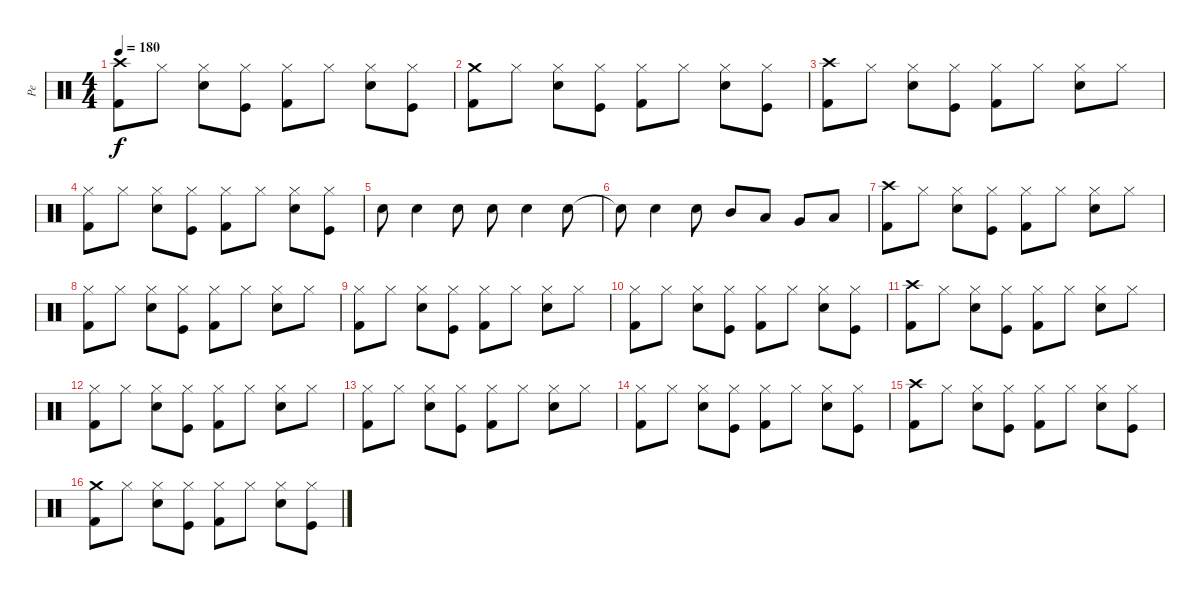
\track ("Pe" "Pe") {instrument percussion}
\staff {score}
\articulation defaults
\ts (4 4)
\tempo 180
\clef neutral
\ks c
("Kick (hit) 2" "Crash high (hit)").8{dy f} "Hi-Hat (closed)".8 ("Electric Snare (hit)" "Hi-Hat (closed)").8 ("Kick (hit)" "Hi-Hat (closed)").8 ("Kick (hit) 2" "Hi-Hat (closed)").8 "Hi-Hat (closed)".8 ("Electric Snare (hit)" "Hi-Hat (closed)").8 ("Kick (hit)" "Hi-Hat (closed)").8 |
("Kick (hit) 2" "Crash medium (hit)").8 "Hi-Hat (closed)".8 ("Electric Snare (hit)" "Hi-Hat (closed)").8 ("Kick (hit)" "Hi-Hat (closed)").8 ("Kick (hit) 2" "Hi-Hat (closed)").8 "Hi-Hat (closed)".8 ("Electric Snare (hit)" "Hi-Hat (closed)").8 ("Kick (hit)" "Hi-Hat (closed)").8 |
("Kick (hit) 2" "Crash high (hit)").8 "Hi-Hat (closed)".8 ("Electric Snare (hit)" "Hi-Hat (closed)").8 ("Kick (hit)" "Hi-Hat (closed)").8 ("Kick (hit) 2" "Hi-Hat (closed)").8 "Hi-Hat (closed)".8 ("Electric Snare (hit)" "Hi-Hat (closed)").8 "Hi-Hat (closed)".8 |
("Kick (hit) 2" "Hi-Hat (closed)").8 "Hi-Hat (closed)".8 ("Electric Snare (hit)" "Hi-Hat (closed)").8 ("Kick (hit)" "Hi-Hat (closed)").8 ("Kick (hit) 2" "Hi-Hat (closed)").8 "Hi-Hat (closed)".8 ("Electric Snare (hit)" "Hi-Hat (closed)").8 ("Kick (hit)" "Hi-Hat (closed)").8 |
"Electric Snare (hit)".8 "Electric Snare (hit)".4 "Electric Snare (hit)".8 "Electric Snare (hit)".8 "Electric Snare (hit)".4 "Electric Snare (hit)".8 |
"Electric Snare (hit)"{t}.8 "Electric Snare (hit)".4 "Electric Snare (hit)".8 "Mid Tom (hit)".8 "Low Tom (hit)".8 "Very Low Tom (hit)".8 "Low Floor Tom (hit)".8 |
("Kick (hit) 2" "Crash high (hit)").8 "Hi-Hat (closed)".8 ("Electric Snare (hit)" "Hi-Hat (closed)").8 ("Kick (hit)" "Hi-Hat (closed)").8 ("Kick (hit) 2" "Hi-Hat (closed)").8 "Hi-Hat (closed)".8 ("Electric Snare (hit)" "Hi-Hat (closed)").8 "Hi-Hat (closed)".8 |
("Kick (hit) 2" "Hi-Hat (closed)").8 "Hi-Hat (closed)".8 ("Electric Snare (hit)" "Hi-Hat (closed)").8 ("Kick (hit)" "Hi-Hat (closed)").8 ("Kick (hit) 2" "Hi-Hat (closed)").8 "Hi-Hat (closed)".8 ("Electric Snare (hit)" "Hi-Hat (closed)").8 "Hi-Hat (closed)".8 |
("Kick (hit) 2" "Hi-Hat (closed)").8 "Hi-Hat (closed)".8 ("Electric Snare (hit)" "Hi-Hat (closed)").8 ("Kick (hit)" "Hi-Hat (closed)").8 ("Kick (hit) 2" "Hi-Hat (closed)").8 "Hi-Hat (closed)".8 ("Electric Snare (hit)" "Hi-Hat (closed)").8 "Hi-Hat (closed)".8 |
("Kick (hit) 2" "Hi-Hat (closed)").8 "Hi-Hat (closed)".8 ("Electric Snare (hit)" "Hi-Hat (closed)").8 ("Kick (hit)" "Hi-Hat (closed)").8 ("Kick (hit) 2" "Hi-Hat (closed)").8 "Hi-Hat (closed)".8 ("Electric Snare (hit)" "Hi-Hat (closed)").8 ("Kick (hit)" "Hi-Hat (closed)").8 |
("Kick (hit) 2" "Crash high (hit)").8 "Hi-Hat (closed)".8 ("Electric Snare (hit)" "Hi-Hat (closed)").8 ("Kick (hit)" "Hi-Hat (closed)").8 ("Kick (hit) 2" "Hi-Hat (closed)").8 "Hi-Hat (closed)".8 ("Electric Snare (hit)" "Hi-Hat (closed)").8 "Hi-Hat (closed)".8 |
("Kick (hit) 2" "Hi-Hat (closed)").8 "Hi-Hat (closed)".8 ("Electric Snare (hit)" "Hi-Hat (closed)").8 ("Kick (hit)" "Hi-Hat (closed)").8 ("Kick (hit) 2" "Hi-Hat (closed)").8 "Hi-Hat (closed)".8 ("Electric Snare (hit)" "Hi-Hat (closed)").8 "Hi-Hat (closed)".8 |
("Kick (hit) 2" "Hi-Hat (closed)").8 "Hi-Hat (closed)".8 ("Electric Snare (hit)" "Hi-Hat (closed)").8 ("Kick (hit)" "Hi-Hat (closed)").8 ("Kick (hit) 2" "Hi-Hat (closed)").8 "Hi-Hat (closed)".8 ("Electric Snare (hit)" "Hi-Hat (closed)").8 "Hi-Hat (closed)".8 |
("Kick (hit) 2" "Hi-Hat (closed)").8 "Hi-Hat (closed)".8 ("Electric Snare (hit)" "Hi-Hat (closed)").8 ("Kick (hit)" "Hi-Hat (closed)").8 ("Kick (hit) 2" "Hi-Hat (closed)").8 "Hi-Hat (closed)".8 ("Electric Snare (hit)" "Hi-Hat (closed)").8 ("Kick (hit)" "Hi-Hat (closed)").8 |
("Kick (hit) 2" "Crash high (hit)").8 "Hi-Hat (closed)".8 ("Electric Snare (hit)" "Hi-Hat (closed)").8 ("Kick (hit)" "Hi-Hat (closed)").8 ("Kick (hit) 2" "Hi-Hat (closed)").8 "Hi-Hat (closed)".8 ("Electric Snare (hit)" "Hi-Hat (closed)").8 ("Kick (hit)" "Hi-Hat (closed)").8 |
("Kick (hit) 2" "Crash medium (hit)").8 "Hi-Hat (closed)".8 ("Electric Snare (hit)" "Hi-Hat (closed)").8 ("Kick (hit)" "Hi-Hat (closed)").8 ("Kick (hit) 2" "Hi-Hat (closed)").8 "Hi-Hat (closed)".8 ("Electric Snare (hit)" "Hi-Hat (closed)").8 ("Kick (hit)" "Hi-Hat (closed)").8
